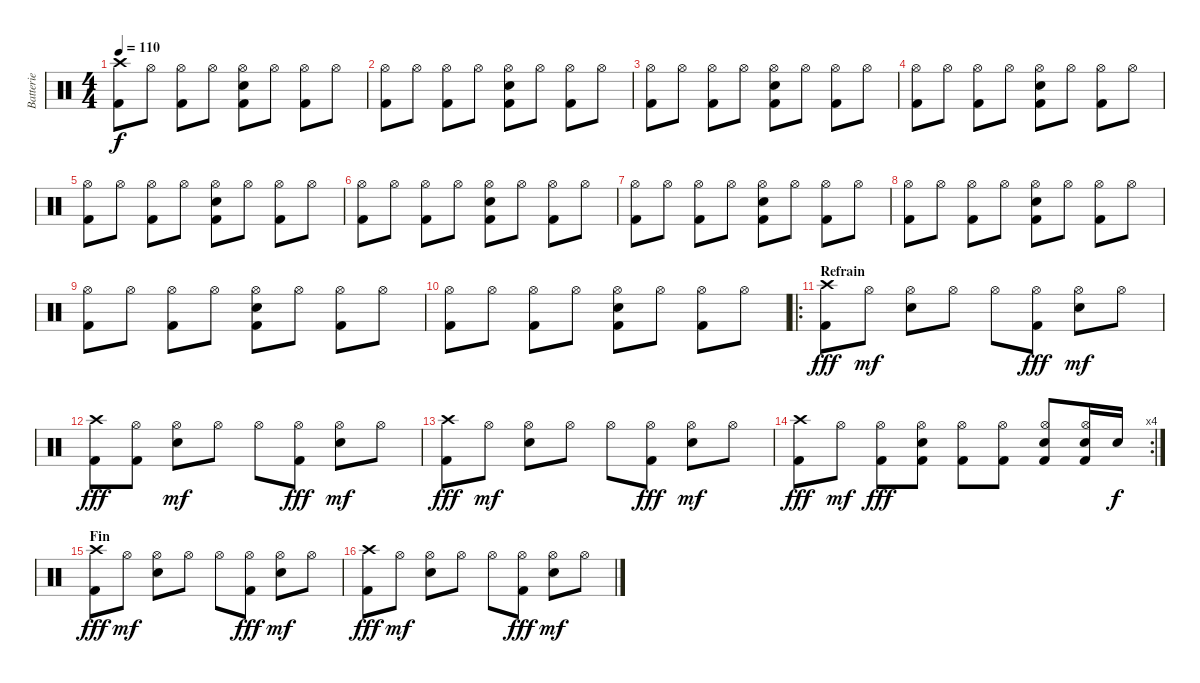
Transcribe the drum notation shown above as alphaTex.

\track ("Batterie" "Batterie") {instrument percussion}
\staff {score}
\articulation defaults
\ts (4 4)
\tempo 110
\clef neutral
\ks c
("Crash high (hit)" "Kick (hit) 2").8{dy f} "Hi-Hat (open)".8 ("Hi-Hat (open)" "Kick (hit) 2").8 "Hi-Hat (open)".8 ("Snare (hit) 2" "Hi-Hat (open)" "Kick (hit) 2").8 "Hi-Hat (open)".8 ("Hi-Hat (open)" "Kick (hit) 2").8 "Hi-Hat (open)".8 |
("Hi-Hat (open)" "Kick (hit) 2").8 "Hi-Hat (open)".8 ("Hi-Hat (open)" "Kick (hit) 2").8 "Hi-Hat (open)".8 ("Snare (hit) 2" "Hi-Hat (open)" "Kick (hit) 2").8 "Hi-Hat (open)".8 ("Hi-Hat (open)" "Kick (hit) 2").8 "Hi-Hat (open)".8 |
("Hi-Hat (open)" "Kick (hit) 2").8 "Hi-Hat (open)".8 ("Hi-Hat (open)" "Kick (hit) 2").8 "Hi-Hat (open)".8 ("Snare (hit) 2" "Hi-Hat (open)" "Kick (hit) 2").8 "Hi-Hat (open)".8 ("Hi-Hat (open)" "Kick (hit) 2").8 "Hi-Hat (open)".8 |
("Hi-Hat (open)" "Kick (hit) 2").8 "Hi-Hat (open)".8 ("Hi-Hat (open)" "Kick (hit) 2").8 "Hi-Hat (open)".8 ("Snare (hit) 2" "Hi-Hat (open)" "Kick (hit) 2").8 "Hi-Hat (open)".8 ("Hi-Hat (open)" "Kick (hit) 2").8 "Hi-Hat (open)".8 |
("Hi-Hat (open)" "Kick (hit) 2").8 "Hi-Hat (open)".8 ("Hi-Hat (open)" "Kick (hit) 2").8 "Hi-Hat (open)".8 ("Snare (hit) 2" "Hi-Hat (open)" "Kick (hit) 2").8 "Hi-Hat (open)".8 ("Hi-Hat (open)" "Kick (hit) 2").8 "Hi-Hat (open)".8 |
("Hi-Hat (open)" "Kick (hit) 2").8 "Hi-Hat (open)".8 ("Hi-Hat (open)" "Kick (hit) 2").8 "Hi-Hat (open)".8 ("Snare (hit) 2" "Hi-Hat (open)" "Kick (hit) 2").8 "Hi-Hat (open)".8 ("Hi-Hat (open)" "Kick (hit) 2").8 "Hi-Hat (open)".8 |
("Hi-Hat (open)" "Kick (hit) 2").8 "Hi-Hat (open)".8 ("Hi-Hat (open)" "Kick (hit) 2").8 "Hi-Hat (open)".8 ("Snare (hit) 2" "Hi-Hat (open)" "Kick (hit) 2").8 "Hi-Hat (open)".8 ("Hi-Hat (open)" "Kick (hit) 2").8 "Hi-Hat (open)".8 |
("Hi-Hat (open)" "Kick (hit) 2").8 "Hi-Hat (open)".8 ("Hi-Hat (open)" "Kick (hit) 2").8 "Hi-Hat (open)".8 ("Snare (hit) 2" "Hi-Hat (open)" "Kick (hit) 2").8 "Hi-Hat (open)".8 ("Hi-Hat (open)" "Kick (hit) 2").8 "Hi-Hat (open)".8 |
("Hi-Hat (open)" "Kick (hit) 2").8 "Hi-Hat (open)".8 ("Hi-Hat (open)" "Kick (hit) 2").8 "Hi-Hat (open)".8 ("Snare (hit) 2" "Hi-Hat (open)" "Kick (hit) 2").8 "Hi-Hat (open)".8 ("Hi-Hat (open)" "Kick (hit) 2").8 "Hi-Hat (open)".8 |
("Hi-Hat (open)" "Kick (hit) 2").8 "Hi-Hat (open)".8 ("Hi-Hat (open)" "Kick (hit) 2").8 "Hi-Hat (open)".8 ("Snare (hit) 2" "Hi-Hat (open)" "Kick (hit) 2").8 "Hi-Hat (open)".8 ("Hi-Hat (open)" "Kick (hit) 2").8 "Hi-Hat (open)".8 |
\ro
\section ("" "Refrain")
("Crash high (hit)" "Kick (hit) 2").8{dy fff} "Hi-Hat (open)".8{dy mf} ("Hi-Hat (open)" "Snare (hit) 2").8 "Hi-Hat (open)".8 "Hi-Hat (open)".8 ("Hi-Hat (open)" "Kick (hit) 2").8{dy fff} ("Hi-Hat (open)" "Snare (hit) 2").8{dy mf} "Hi-Hat (open)".8 |
("Crash high (hit)" "Kick (hit) 2").8{dy fff} ("Hi-Hat (open)" "Kick (hit) 2").8 ("Hi-Hat (open)" "Snare (hit) 2").8{dy mf} "Hi-Hat (open)".8 "Hi-Hat (open)".8 ("Hi-Hat (open)" "Kick (hit) 2").8{dy fff} ("Hi-Hat (open)" "Snare (hit) 2").8{dy mf} "Hi-Hat (open)".8 |
("Crash high (hit)" "Kick (hit) 2").8{dy fff} "Hi-Hat (open)".8{dy mf} ("Hi-Hat (open)" "Snare (hit) 2").8 "Hi-Hat (open)".8 "Hi-Hat (open)".8 ("Hi-Hat (open)" "Kick (hit) 2").8{dy fff} ("Hi-Hat (open)" "Snare (hit) 2").8{dy mf} "Hi-Hat (open)".8 |
\rc 4
("Crash high (hit)" "Kick (hit) 2").8{dy fff} "Hi-Hat (open)".8{dy mf} ("Hi-Hat (open)" "Kick (hit) 2").8{dy fff} ("Hi-Hat (open)" "Snare (hit) 2" "Kick (hit) 2").8 ("Hi-Hat (open)" "Kick (hit) 2").8 ("Hi-Hat (open)" "Kick (hit) 2").8 ("Hi-Hat (open)" "Snare (hit) 2" "Kick (hit) 2").8 ("Hi-Hat (open)" "Snare (hit) 2" "Kick (hit) 2").16 "Snare (hit) 2".16{dy f} |
\section ("" "Fin")
("Crash high (hit)" "Kick (hit) 2").8{dy fff} "Hi-Hat (open)".8{dy mf} ("Hi-Hat (open)" "Snare (hit) 2").8 "Hi-Hat (open)".8 "Hi-Hat (open)".8 ("Hi-Hat (open)" "Kick (hit) 2").8{dy fff} ("Hi-Hat (open)" "Snare (hit) 2").8{dy mf} "Hi-Hat (open)".8 |
("Crash high (hit)" "Kick (hit) 2").8{dy fff} "Hi-Hat (open)".8{dy mf} ("Hi-Hat (open)" "Snare (hit) 2").8 "Hi-Hat (open)".8 "Hi-Hat (open)".8 ("Hi-Hat (open)" "Kick (hit) 2").8{dy fff} ("Hi-Hat (open)" "Snare (hit) 2").8{dy mf} "Hi-Hat (open)".8
